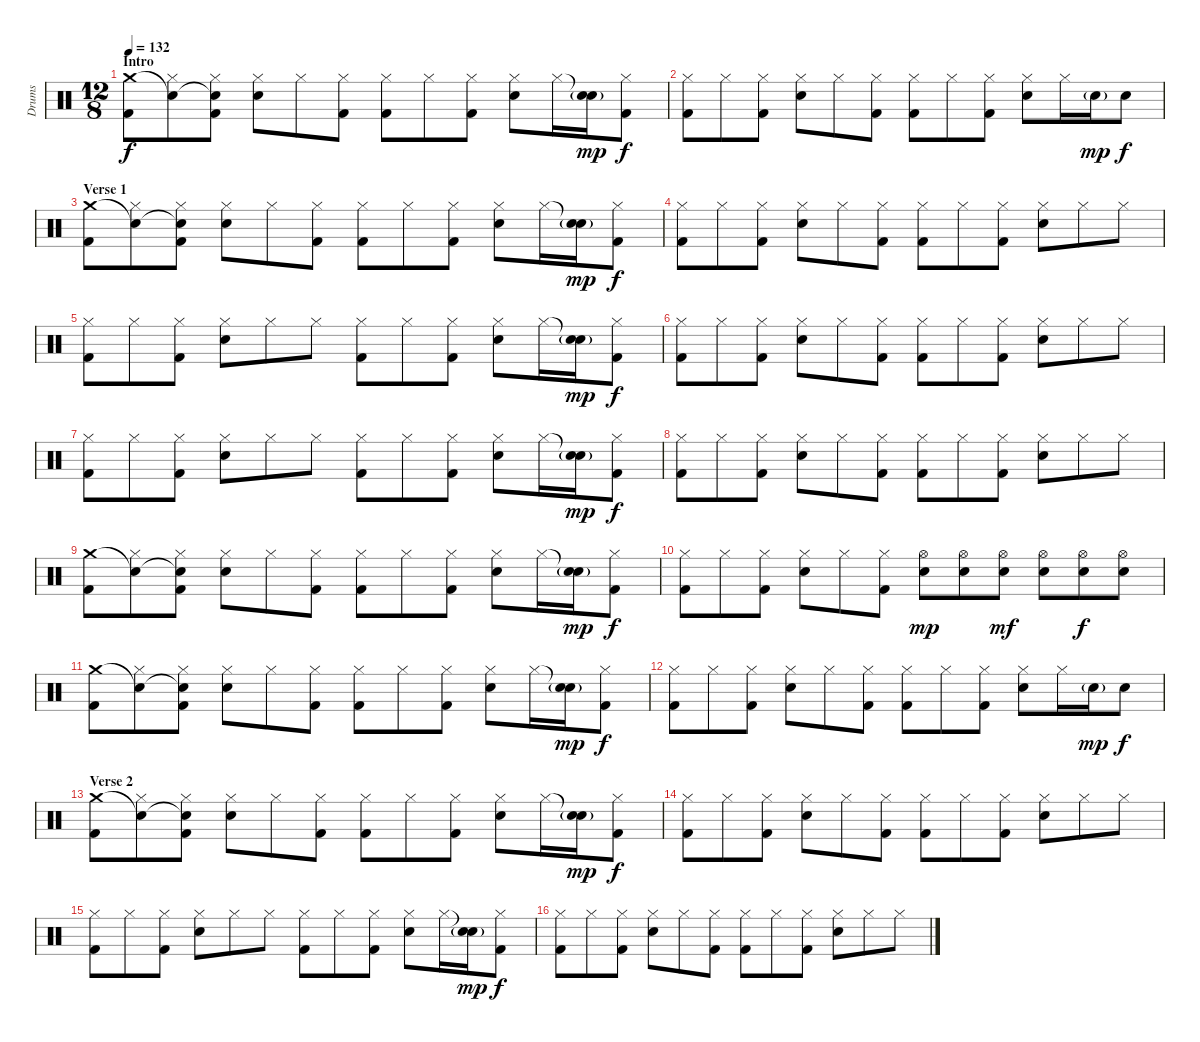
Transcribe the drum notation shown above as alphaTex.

\track ("Drums" "Drums") {instrument percussion}
\staff {score}
\articulation defaults
\ts (12 8)
\section ("" "Intro")
\tempo 132
\clef neutral
\ks c
("Crash medium (hit)" "Kick (hit) 2").8{dy f} ("Snare (hit)"{t} "Hi-Hat (closed)").8 ("Snare (hit)"{t} "Hi-Hat (closed)" "Kick (hit) 2").8 ("Hi-Hat (closed)" "Electric Snare (hit)").8 "Hi-Hat (closed)".8 ("Hi-Hat (closed)" "Kick (hit) 2").8 ("Hi-Hat (closed)" "Kick (hit) 2").8 "Hi-Hat (closed)".8 ("Hi-Hat (closed)" "Kick (hit) 2").8 ("Hi-Hat (closed)" "Electric Snare (hit)").8 "Hi-Hat (closed)".16 ("Snare (hit)"{t} "Electric Snare (hit)"{g}).16{dy mp} ("Hi-Hat (closed)" "Kick (hit) 2").8{dy f} |
("Hi-Hat (closed)" "Kick (hit) 2").8 "Hi-Hat (closed)".8 ("Hi-Hat (closed)" "Kick (hit) 2").8 ("Hi-Hat (closed)" "Electric Snare (hit)").8 "Hi-Hat (closed)".8 ("Hi-Hat (closed)" "Kick (hit) 2").8 ("Hi-Hat (closed)" "Kick (hit) 2").8 "Hi-Hat (closed)".8 ("Hi-Hat (closed)" "Kick (hit) 2").8 ("Hi-Hat (closed)" "Electric Snare (hit)").8 "Hi-Hat (closed)".16 "Electric Snare (hit)"{g}.16{dy mp} "Electric Snare (hit)".8{dy f} |
\section ("" "Verse 1")
("Crash medium (hit)" "Kick (hit) 2").8 ("Snare (hit)"{t} "Hi-Hat (closed)").8 ("Snare (hit)"{t} "Hi-Hat (closed)" "Kick (hit) 2").8 ("Hi-Hat (closed)" "Electric Snare (hit)").8 "Hi-Hat (closed)".8 ("Hi-Hat (closed)" "Kick (hit) 2").8 ("Hi-Hat (closed)" "Kick (hit) 2").8 "Hi-Hat (closed)".8 ("Hi-Hat (closed)" "Kick (hit) 2").8 ("Hi-Hat (closed)" "Electric Snare (hit)").8 "Hi-Hat (closed)".16 ("Snare (hit)"{t} "Electric Snare (hit)"{g}).16{dy mp} ("Hi-Hat (closed)" "Kick (hit) 2").8{dy f} |
("Hi-Hat (closed)" "Kick (hit) 2").8 "Hi-Hat (closed)".8 ("Hi-Hat (closed)" "Kick (hit) 2").8 ("Hi-Hat (closed)" "Electric Snare (hit)").8 "Hi-Hat (closed)".8 ("Hi-Hat (closed)" "Kick (hit) 2").8 ("Hi-Hat (closed)" "Kick (hit) 2").8 "Hi-Hat (closed)".8 ("Hi-Hat (closed)" "Kick (hit) 2").8 ("Hi-Hat (closed)" "Electric Snare (hit)").8 "Hi-Hat (closed)".8 "Hi-Hat (closed)".8 |
("Hi-Hat (closed)" "Kick (hit) 2").8 "Hi-Hat (closed)".8 ("Hi-Hat (closed)" "Kick (hit) 2").8 ("Hi-Hat (closed)" "Electric Snare (hit)").8 "Hi-Hat (closed)".8 "Hi-Hat (closed)".8 ("Hi-Hat (closed)" "Kick (hit) 2").8 "Hi-Hat (closed)".8 ("Hi-Hat (closed)" "Kick (hit) 2").8 ("Hi-Hat (closed)" "Electric Snare (hit)").8 "Hi-Hat (closed)".16 ("Snare (hit)"{t} "Electric Snare (hit)"{g}).16{dy mp} ("Hi-Hat (closed)" "Kick (hit) 2").8{dy f} |
("Hi-Hat (closed)" "Kick (hit) 2").8 "Hi-Hat (closed)".8 ("Hi-Hat (closed)" "Kick (hit) 2").8 ("Hi-Hat (closed)" "Electric Snare (hit)").8 "Hi-Hat (closed)".8 ("Hi-Hat (closed)" "Kick (hit) 2").8 ("Hi-Hat (closed)" "Kick (hit) 2").8 "Hi-Hat (closed)".8 ("Hi-Hat (closed)" "Kick (hit) 2").8 ("Hi-Hat (closed)" "Electric Snare (hit)").8 "Hi-Hat (closed)".8 "Hi-Hat (closed)".8 |
("Hi-Hat (closed)" "Kick (hit) 2").8 "Hi-Hat (closed)".8 ("Hi-Hat (closed)" "Kick (hit) 2").8 ("Hi-Hat (closed)" "Electric Snare (hit)").8 "Hi-Hat (closed)".8 "Hi-Hat (closed)".8 ("Hi-Hat (closed)" "Kick (hit) 2").8 "Hi-Hat (closed)".8 ("Hi-Hat (closed)" "Kick (hit) 2").8 ("Hi-Hat (closed)" "Electric Snare (hit)").8 "Hi-Hat (closed)".16 ("Snare (hit)"{t} "Electric Snare (hit)"{g}).16{dy mp} ("Hi-Hat (closed)" "Kick (hit) 2").8{dy f} |
("Hi-Hat (closed)" "Kick (hit) 2").8 "Hi-Hat (closed)".8 ("Hi-Hat (closed)" "Kick (hit) 2").8 ("Hi-Hat (closed)" "Electric Snare (hit)").8 "Hi-Hat (closed)".8 ("Hi-Hat (closed)" "Kick (hit) 2").8 ("Hi-Hat (closed)" "Kick (hit) 2").8 "Hi-Hat (closed)".8 ("Hi-Hat (closed)" "Kick (hit) 2").8 ("Hi-Hat (closed)" "Electric Snare (hit)").8 "Hi-Hat (closed)".8 "Hi-Hat (closed)".8 |
("Crash medium (hit)" "Kick (hit) 2").8 ("Snare (hit)"{t} "Hi-Hat (closed)").8 ("Snare (hit)"{t} "Hi-Hat (closed)" "Kick (hit) 2").8 ("Hi-Hat (closed)" "Electric Snare (hit)").8 "Hi-Hat (closed)".8 ("Hi-Hat (closed)" "Kick (hit) 2").8 ("Hi-Hat (closed)" "Kick (hit) 2").8 "Hi-Hat (closed)".8 ("Hi-Hat (closed)" "Kick (hit) 2").8 ("Hi-Hat (closed)" "Electric Snare (hit)").8 "Hi-Hat (closed)".16 ("Snare (hit)"{t} "Electric Snare (hit)"{g}).16{dy mp} ("Hi-Hat (closed)" "Kick (hit) 2").8{dy f} |
("Hi-Hat (closed)" "Kick (hit) 2").8 "Hi-Hat (closed)".8 ("Hi-Hat (closed)" "Kick (hit) 2").8 ("Hi-Hat (closed)" "Electric Snare (hit)").8 "Hi-Hat (closed)".8 ("Hi-Hat (closed)" "Kick (hit) 2").8 ("Hi-Hat (open)" "Electric Snare (hit)").8{dy mp} ("Hi-Hat (open)" "Electric Snare (hit)").8 ("Hi-Hat (open)" "Electric Snare (hit)").8{dy mf} ("Hi-Hat (open)" "Electric Snare (hit)").8 ("Hi-Hat (open)" "Electric Snare (hit)").8{dy f} ("Hi-Hat (open)" "Electric Snare (hit)").8 |
("Crash medium (hit)" "Kick (hit) 2").8 ("Snare (hit)"{t} "Hi-Hat (closed)").8 ("Snare (hit)"{t} "Hi-Hat (closed)" "Kick (hit) 2").8 ("Hi-Hat (closed)" "Electric Snare (hit)").8 "Hi-Hat (closed)".8 ("Hi-Hat (closed)" "Kick (hit) 2").8 ("Hi-Hat (closed)" "Kick (hit) 2").8 "Hi-Hat (closed)".8 ("Hi-Hat (closed)" "Kick (hit) 2").8 ("Hi-Hat (closed)" "Electric Snare (hit)").8 "Hi-Hat (closed)".16 ("Snare (hit)"{t} "Electric Snare (hit)"{g}).16{dy mp} ("Hi-Hat (closed)" "Kick (hit) 2").8{dy f} |
("Hi-Hat (closed)" "Kick (hit) 2").8 "Hi-Hat (closed)".8 ("Hi-Hat (closed)" "Kick (hit) 2").8 ("Hi-Hat (closed)" "Electric Snare (hit)").8 "Hi-Hat (closed)".8 ("Hi-Hat (closed)" "Kick (hit) 2").8 ("Hi-Hat (closed)" "Kick (hit) 2").8 "Hi-Hat (closed)".8 ("Hi-Hat (closed)" "Kick (hit) 2").8 ("Hi-Hat (closed)" "Electric Snare (hit)").8 "Hi-Hat (closed)".16 "Electric Snare (hit)"{g}.16{dy mp} "Electric Snare (hit)".8{dy f} |
\section ("" "Verse 2")
("Crash medium (hit)" "Kick (hit) 2").8 ("Snare (hit)"{t} "Hi-Hat (closed)").8 ("Snare (hit)"{t} "Hi-Hat (closed)" "Kick (hit) 2").8 ("Hi-Hat (closed)" "Electric Snare (hit)").8 "Hi-Hat (closed)".8 ("Hi-Hat (closed)" "Kick (hit) 2").8 ("Hi-Hat (closed)" "Kick (hit) 2").8 "Hi-Hat (closed)".8 ("Hi-Hat (closed)" "Kick (hit) 2").8 ("Hi-Hat (closed)" "Electric Snare (hit)").8 "Hi-Hat (closed)".16 ("Snare (hit)"{t} "Electric Snare (hit)"{g}).16{dy mp} ("Hi-Hat (closed)" "Kick (hit) 2").8{dy f} |
("Hi-Hat (closed)" "Kick (hit) 2").8 "Hi-Hat (closed)".8 ("Hi-Hat (closed)" "Kick (hit) 2").8 ("Hi-Hat (closed)" "Electric Snare (hit)").8 "Hi-Hat (closed)".8 ("Hi-Hat (closed)" "Kick (hit) 2").8 ("Hi-Hat (closed)" "Kick (hit) 2").8 "Hi-Hat (closed)".8 ("Hi-Hat (closed)" "Kick (hit) 2").8 ("Hi-Hat (closed)" "Electric Snare (hit)").8 "Hi-Hat (closed)".8 "Hi-Hat (closed)".8 |
("Hi-Hat (closed)" "Kick (hit) 2").8 "Hi-Hat (closed)".8 ("Hi-Hat (closed)" "Kick (hit) 2").8 ("Hi-Hat (closed)" "Electric Snare (hit)").8 "Hi-Hat (closed)".8 "Hi-Hat (closed)".8 ("Hi-Hat (closed)" "Kick (hit) 2").8 "Hi-Hat (closed)".8 ("Hi-Hat (closed)" "Kick (hit) 2").8 ("Hi-Hat (closed)" "Electric Snare (hit)").8 "Hi-Hat (closed)".16 ("Snare (hit)"{t} "Electric Snare (hit)"{g}).16{dy mp} ("Hi-Hat (closed)" "Kick (hit) 2").8{dy f} |
("Hi-Hat (closed)" "Kick (hit) 2").8 "Hi-Hat (closed)".8 ("Hi-Hat (closed)" "Kick (hit) 2").8 ("Hi-Hat (closed)" "Electric Snare (hit)").8 "Hi-Hat (closed)".8 ("Hi-Hat (closed)" "Kick (hit) 2").8 ("Hi-Hat (closed)" "Kick (hit) 2").8 "Hi-Hat (closed)".8 ("Hi-Hat (closed)" "Kick (hit) 2").8 ("Hi-Hat (closed)" "Electric Snare (hit)").8 "Hi-Hat (closed)".8 "Hi-Hat (closed)".8
